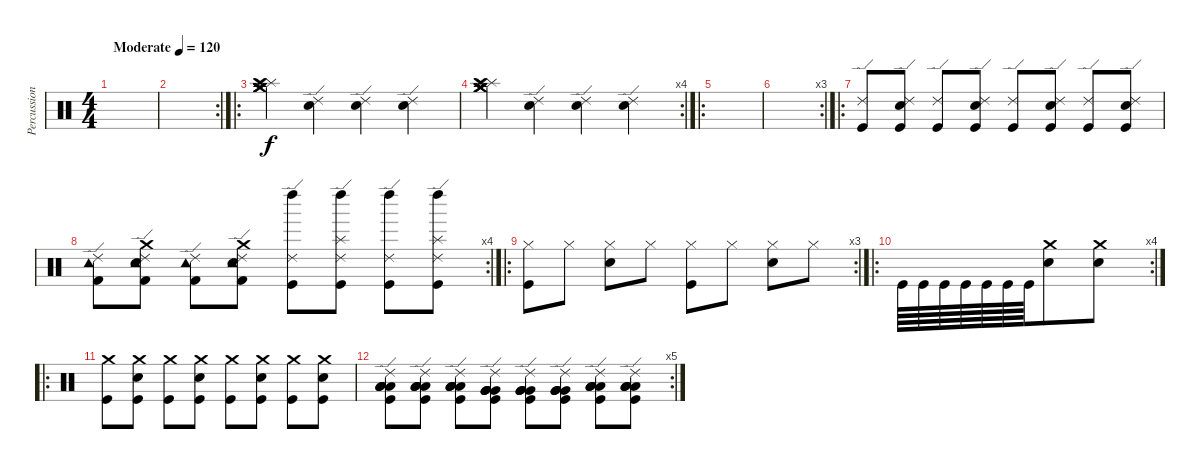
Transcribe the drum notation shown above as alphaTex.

\track ("Percussion" "Percussion") {instrument percussion}
\staff {score}
\articulation defaults
\ts (4 4)
\tempo (120 "Moderate")
\clef neutral
\ks c
|
\rc 2
|
\ro
("Splash (hit)" "Crash medium (hit)" "Crash medium (hit)" "Splash (hit)" "Crash medium (hit)" "Crash high (hit)").4 ("Ride (edge) 2" "Snare (hit) 2").4 ("Ride (edge) 2" "Snare (hit) 2").4 ("Ride (edge) 2" "Snare (hit) 2").4 |
\rc 4
("Splash (hit)" "Crash medium (hit)" "Crash medium (hit)" "Splash (hit)" "Crash medium (hit)" "Crash high (hit)").4 ("Ride (edge) 2" "Snare (hit) 2").4 ("Ride (edge) 2" "Snare (hit) 2").4 ("Ride (edge) 2" "Snare (hit) 2").4 |
\ro
|
\rc 3
|
\ro
("Ride (edge) 2" "Kick (hit)").8 ("Ride (edge) 2" "Snare (hit) 2" "Kick (hit)").8 ("Ride (edge) 2" "Kick (hit)").8 ("Ride (edge) 2" "Snare (hit) 2" "Kick (hit)").8 ("Ride (edge) 2" "Kick (hit)").8 ("Ride (edge) 2" "Snare (hit) 2" "Kick (hit)").8 ("Ride (edge) 2" "Kick (hit)").8 ("Ride (edge) 2" "Snare (hit) 2" "Kick (hit)").8 |
\rc 4
("Ride (edge) 2" "Tambourine (hit)" "Kick (hit) 2").8 ("Ride (edge) 2" "Tambourine (hit)" "Crash medium (hit)" "Snare (hit) 2" "Kick (hit) 2").8 ("Ride (edge) 2" "Tambourine (hit)" "Kick (hit) 2").8 ("Ride (edge) 2" "Tambourine (hit)" "Crash medium (hit)" "Snare (hit) 2" "Kick (hit) 2").8 ("Ride (edge) 2" "Left Maraca (hit)" "Kick (hit)").8 ("Ride (edge) 2" "Left Maraca (hit)" "Splash (hit)" "Kick (hit)").8 ("Ride (edge) 2" "Left Maraca (hit)" "Kick (hit)").8 ("Ride (edge) 2" "Left Maraca (hit)" "Splash (hit)" "Kick (hit)").8 |
\ro
\rc 3
("Hi-Hat (closed)" "Kick (hit)").8 "Hi-Hat (closed)".8 ("Hi-Hat (closed)" "Electric Snare (hit)").8 "Hi-Hat (closed)".8 ("Hi-Hat (closed)" "Kick (hit)").8 "Hi-Hat (closed)".8 ("Hi-Hat (closed)" "Electric Snare (hit)").8 "Hi-Hat (closed)".8 |
\ro
\rc 4 "Kick (hit)".64 "Kick (hit)".64 "Kick (hit)".64 "Kick (hit)".64 "Kick (hit)".64 "Kick (hit)".64 "Kick (hit)".64
("Crash medium (hit)" "Snare (hit) 2").8 ("Crash medium (hit)" "Snare (hit) 2").8 |
\ro
("Crash medium (hit)" "Kick (hit)").8 ("Crash medium (hit)" "Snare (hit) 2" "Kick (hit)").8 ("Crash medium (hit)" "Kick (hit)").8 ("Crash medium (hit)" "Snare (hit) 2" "Kick (hit)").8 ("Crash medium (hit)" "Kick (hit)").8 ("Crash medium (hit)" "Snare (hit) 2" "Kick (hit)").8 ("Crash medium (hit)" "Kick (hit)").8 ("Crash medium (hit)" "Snare (hit) 2" "Kick (hit)").8 |
\rc 5
("Kick (hit)" "Low Floor Tom (hit)" "Low Floor Tom (hit)" "Low Floor Tom (hit)" "Low Floor Tom (hit)" "Ride (edge) 2").8 ("Kick (hit)" "Low Floor Tom (hit)" "Low Floor Tom (hit)" "Low Floor Tom (hit)" "Low Floor Tom (hit)" "Ride (edge) 2").8 ("Kick (hit)" "Low Floor Tom (hit)" "Low Floor Tom (hit)" "Low Floor Tom (hit)" "Low Floor Tom (hit)" "Ride (edge) 2").8 ("Kick (hit)" "Very Low Tom (hit)" "Very Low Tom (hit)" "Very Low Tom (hit)" "Very Low Tom (hit)" "Ride (edge) 2").8 ("Kick (hit)" "Very Low Tom (hit)" "Very Low Tom (hit)" "Very Low Tom (hit)" "Very Low Tom (hit)" "Ride (edge) 2").8 ("Kick (hit)" "Very Low Tom (hit)" "Very Low Tom (hit)" "Very Low Tom (hit)" "Very Low Tom (hit)" "Ride (edge) 2").8 ("Kick (hit)" "Low Tom (hit)" "Low Tom (hit)" "Low Tom (hit)" "Low Tom (hit)" "Ride (edge) 2").8 ("Kick (hit)" "Low Tom (hit)" "Low Tom (hit)" "Low Tom (hit)" "Low Tom (hit)" "Ride (edge) 2").8
